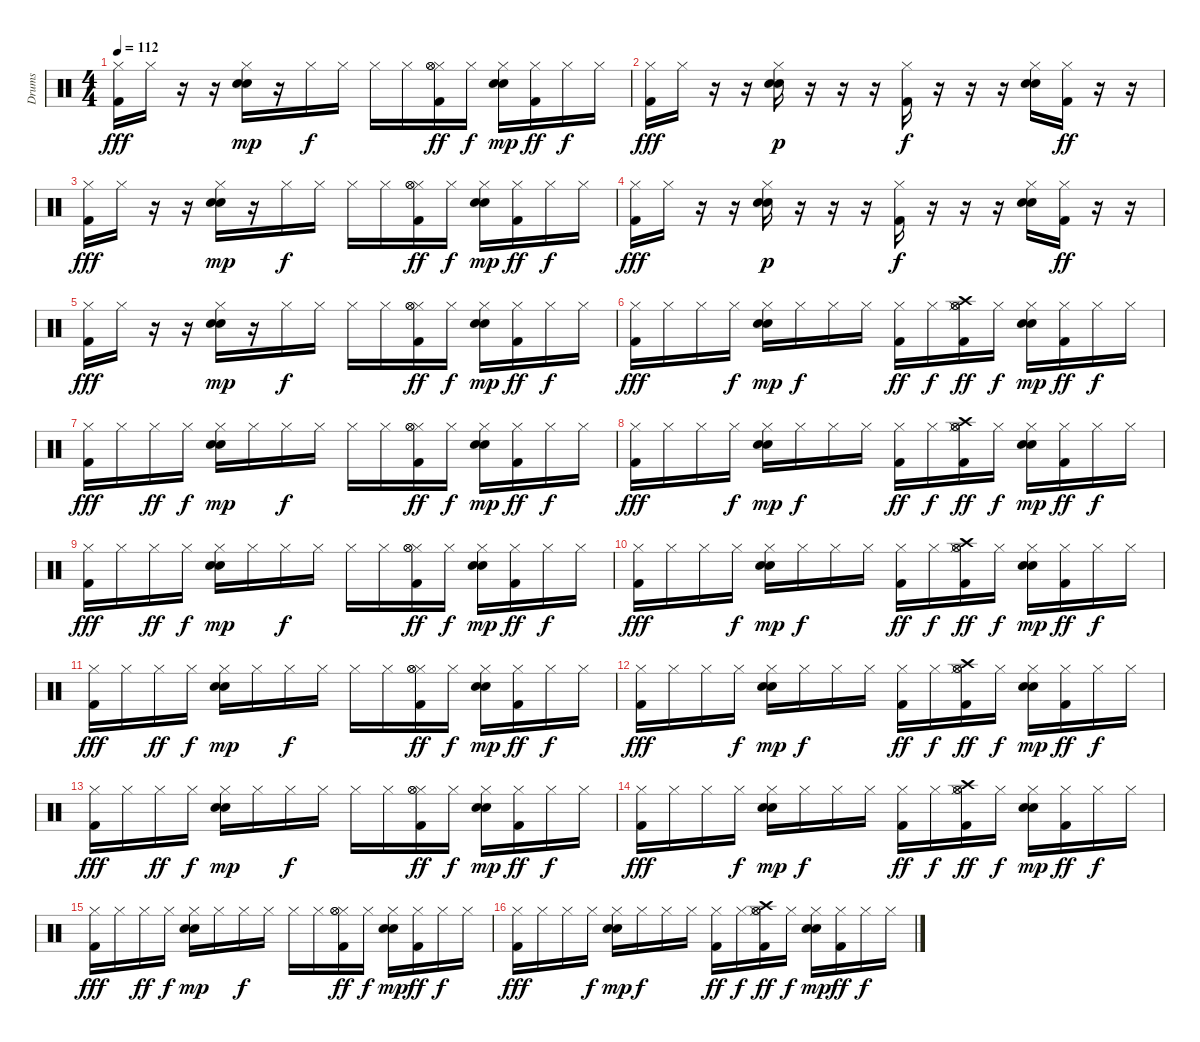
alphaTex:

\track ("Drums" "Drums") {instrument percussion}
\staff {score}
\articulation defaults
\ts (4 4)
\tempo 112
\clef neutral
\ks c
("Kick (hit) 2" "Hi-Hat (closed)").16{dy fff} "Hi-Hat (closed)".16 r.16 r.16 ("Snare (hit) 2" "Hi-Hat (closed)" "Hand Clap (hit)").16{dy mp} r.16 "Hi-Hat (closed)".16{dy f} "Hi-Hat (closed)".16 "Hi-Hat (closed)".16 "Hi-Hat (closed)".16 ("Kick (hit) 2" "Hi-Hat (closed)" "Hi-Hat (open)" "Hi-Hat (open)").16{dy ff} "Hi-Hat (closed)".16{dy f} ("Snare (hit) 2" "Hi-Hat (closed)" "Hand Clap (hit)").16{dy mp} ("Kick (hit) 2" "Hi-Hat (closed)").16{dy ff} "Hi-Hat (closed)".16{dy f} "Hi-Hat (closed)".16 |
("Kick (hit) 2" "Hi-Hat (closed)").16{dy fff} "Hi-Hat (closed)".16 r.16 r.16 ("Snare (hit) 2" "Hi-Hat (closed)" "Hand Clap (hit)").16{dy p} r.16 r.16 r.16 ("Kick (hit) 2" "Hi-Hat (closed)").16{dy f} r.16 r.16 r.16 ("Snare (hit) 2" "Hi-Hat (closed)" "Hand Clap (hit)").16 ("Kick (hit) 2" "Hi-Hat (closed)").16{dy ff} r.16 r.16 |
("Kick (hit) 2" "Hi-Hat (closed)").16{dy fff} "Hi-Hat (closed)".16 r.16 r.16 ("Snare (hit) 2" "Hi-Hat (closed)" "Hand Clap (hit)").16{dy mp} r.16 "Hi-Hat (closed)".16{dy f} "Hi-Hat (closed)".16 "Hi-Hat (closed)".16 "Hi-Hat (closed)".16 ("Kick (hit) 2" "Hi-Hat (closed)" "Hi-Hat (open)" "Hi-Hat (open)").16{dy ff} "Hi-Hat (closed)".16{dy f} ("Snare (hit) 2" "Hi-Hat (closed)" "Hand Clap (hit)").16{dy mp} ("Kick (hit) 2" "Hi-Hat (closed)").16{dy ff} "Hi-Hat (closed)".16{dy f} "Hi-Hat (closed)".16 |
("Kick (hit) 2" "Hi-Hat (closed)").16{dy fff} "Hi-Hat (closed)".16 r.16 r.16 ("Snare (hit) 2" "Hi-Hat (closed)" "Hand Clap (hit)").16{dy p} r.16 r.16 r.16 ("Kick (hit) 2" "Hi-Hat (closed)").16{dy f} r.16 r.16 r.16 ("Snare (hit) 2" "Hi-Hat (closed)" "Hand Clap (hit)").16 ("Kick (hit) 2" "Hi-Hat (closed)").16{dy ff} r.16 r.16 |
("Kick (hit) 2" "Hi-Hat (closed)").16{dy fff} "Hi-Hat (closed)".16 r.16 r.16 ("Snare (hit) 2" "Hi-Hat (closed)" "Hand Clap (hit)").16{dy mp} r.16 "Hi-Hat (closed)".16{dy f} "Hi-Hat (closed)".16 "Hi-Hat (closed)".16 "Hi-Hat (closed)".16 ("Kick (hit) 2" "Hi-Hat (closed)" "Hi-Hat (open)" "Hi-Hat (open)").16{dy ff} "Hi-Hat (closed)".16{dy f} ("Snare (hit) 2" "Hi-Hat (closed)" "Hand Clap (hit)").16{dy mp} ("Kick (hit) 2" "Hi-Hat (closed)").16{dy ff} "Hi-Hat (closed)".16{dy f} "Hi-Hat (closed)".16 |
("Kick (hit) 2" "Hi-Hat (closed)").16{dy fff} "Hi-Hat (closed)".16 "Hi-Hat (closed)".16 "Hi-Hat (closed)".16{dy f} ("Snare (hit) 2" "Hi-Hat (closed)" "Hand Clap (hit)").16{dy mp} "Hi-Hat (closed)".16{dy f} "Hi-Hat (closed)".16 "Hi-Hat (closed)".16 ("Kick (hit) 2" "Hi-Hat (closed)").16{dy ff} "Hi-Hat (closed)".16{dy f} ("Kick (hit) 2" "Crash high (hit)" "Hi-Hat (closed)" "Hi-Hat (open)" "Hi-Hat (open)").16{dy ff} "Hi-Hat (closed)".16{dy f} ("Snare (hit) 2" "Hi-Hat (closed)" "Hand Clap (hit)").16{dy mp} ("Kick (hit) 2" "Hi-Hat (closed)").16{dy ff} "Hi-Hat (closed)".16{dy f} "Hi-Hat (closed)".16 |
("Kick (hit) 2" "Hi-Hat (closed)").16{dy fff} "Hi-Hat (closed)".16 "Hi-Hat (closed)".16{dy ff} "Hi-Hat (closed)".16{dy f} ("Snare (hit) 2" "Hi-Hat (closed)" "Hand Clap (hit)").16{dy mp} "Hi-Hat (closed)".16 "Hi-Hat (closed)".16{dy f} "Hi-Hat (closed)".16 "Hi-Hat (closed)".16 "Hi-Hat (closed)".16 ("Kick (hit) 2" "Hi-Hat (closed)" "Hi-Hat (open)" "Hi-Hat (open)").16{dy ff} "Hi-Hat (closed)".16{dy f} ("Snare (hit) 2" "Hi-Hat (closed)" "Hand Clap (hit)").16{dy mp} ("Kick (hit) 2" "Hi-Hat (closed)").16{dy ff} "Hi-Hat (closed)".16{dy f} "Hi-Hat (closed)".16 |
("Kick (hit) 2" "Hi-Hat (closed)").16{dy fff} "Hi-Hat (closed)".16 "Hi-Hat (closed)".16 "Hi-Hat (closed)".16{dy f} ("Snare (hit) 2" "Hi-Hat (closed)" "Hand Clap (hit)").16{dy mp} "Hi-Hat (closed)".16{dy f} "Hi-Hat (closed)".16 "Hi-Hat (closed)".16 ("Kick (hit) 2" "Hi-Hat (closed)").16{dy ff} "Hi-Hat (closed)".16{dy f} ("Kick (hit) 2" "Crash high (hit)" "Hi-Hat (closed)" "Hi-Hat (open)" "Hi-Hat (open)").16{dy ff} "Hi-Hat (closed)".16{dy f} ("Snare (hit) 2" "Hi-Hat (closed)" "Hand Clap (hit)").16{dy mp} ("Kick (hit) 2" "Hi-Hat (closed)").16{dy ff} "Hi-Hat (closed)".16{dy f} "Hi-Hat (closed)".16 |
("Kick (hit) 2" "Hi-Hat (closed)").16{dy fff} "Hi-Hat (closed)".16 "Hi-Hat (closed)".16{dy ff} "Hi-Hat (closed)".16{dy f} ("Snare (hit) 2" "Hi-Hat (closed)" "Hand Clap (hit)").16{dy mp} "Hi-Hat (closed)".16 "Hi-Hat (closed)".16{dy f} "Hi-Hat (closed)".16 "Hi-Hat (closed)".16 "Hi-Hat (closed)".16 ("Kick (hit) 2" "Hi-Hat (closed)" "Hi-Hat (open)" "Hi-Hat (open)").16{dy ff} "Hi-Hat (closed)".16{dy f} ("Snare (hit) 2" "Hi-Hat (closed)" "Hand Clap (hit)").16{dy mp} ("Kick (hit) 2" "Hi-Hat (closed)").16{dy ff} "Hi-Hat (closed)".16{dy f} "Hi-Hat (closed)".16 |
("Kick (hit) 2" "Hi-Hat (closed)").16{dy fff} "Hi-Hat (closed)".16 "Hi-Hat (closed)".16 "Hi-Hat (closed)".16{dy f} ("Snare (hit) 2" "Hi-Hat (closed)" "Hand Clap (hit)").16{dy mp} "Hi-Hat (closed)".16{dy f} "Hi-Hat (closed)".16 "Hi-Hat (closed)".16 ("Kick (hit) 2" "Hi-Hat (closed)").16{dy ff} "Hi-Hat (closed)".16{dy f} ("Kick (hit) 2" "Crash high (hit)" "Hi-Hat (closed)" "Hi-Hat (open)" "Hi-Hat (open)").16{dy ff} "Hi-Hat (closed)".16{dy f} ("Snare (hit) 2" "Hi-Hat (closed)" "Hand Clap (hit)").16{dy mp} ("Kick (hit) 2" "Hi-Hat (closed)").16{dy ff} "Hi-Hat (closed)".16{dy f} "Hi-Hat (closed)".16 |
("Kick (hit) 2" "Hi-Hat (closed)").16{dy fff} "Hi-Hat (closed)".16 "Hi-Hat (closed)".16{dy ff} "Hi-Hat (closed)".16{dy f} ("Snare (hit) 2" "Hi-Hat (closed)" "Hand Clap (hit)").16{dy mp} "Hi-Hat (closed)".16 "Hi-Hat (closed)".16{dy f} "Hi-Hat (closed)".16 "Hi-Hat (closed)".16 "Hi-Hat (closed)".16 ("Kick (hit) 2" "Hi-Hat (closed)" "Hi-Hat (open)" "Hi-Hat (open)").16{dy ff} "Hi-Hat (closed)".16{dy f} ("Snare (hit) 2" "Hi-Hat (closed)" "Hand Clap (hit)").16{dy mp} ("Kick (hit) 2" "Hi-Hat (closed)").16{dy ff} "Hi-Hat (closed)".16{dy f} "Hi-Hat (closed)".16 |
("Kick (hit) 2" "Hi-Hat (closed)").16{dy fff} "Hi-Hat (closed)".16 "Hi-Hat (closed)".16 "Hi-Hat (closed)".16{dy f} ("Snare (hit) 2" "Hi-Hat (closed)" "Hand Clap (hit)").16{dy mp} "Hi-Hat (closed)".16{dy f} "Hi-Hat (closed)".16 "Hi-Hat (closed)".16 ("Kick (hit) 2" "Hi-Hat (closed)").16{dy ff} "Hi-Hat (closed)".16{dy f} ("Kick (hit) 2" "Crash high (hit)" "Hi-Hat (closed)" "Hi-Hat (open)" "Hi-Hat (open)").16{dy ff} "Hi-Hat (closed)".16{dy f} ("Snare (hit) 2" "Hi-Hat (closed)" "Hand Clap (hit)").16{dy mp} ("Kick (hit) 2" "Hi-Hat (closed)").16{dy ff} "Hi-Hat (closed)".16{dy f} "Hi-Hat (closed)".16 |
("Kick (hit) 2" "Hi-Hat (closed)").16{dy fff} "Hi-Hat (closed)".16 "Hi-Hat (closed)".16{dy ff} "Hi-Hat (closed)".16{dy f} ("Snare (hit) 2" "Hi-Hat (closed)" "Hand Clap (hit)").16{dy mp} "Hi-Hat (closed)".16 "Hi-Hat (closed)".16{dy f} "Hi-Hat (closed)".16 "Hi-Hat (closed)".16 "Hi-Hat (closed)".16 ("Kick (hit) 2" "Hi-Hat (closed)" "Hi-Hat (open)" "Hi-Hat (open)").16{dy ff} "Hi-Hat (closed)".16{dy f} ("Snare (hit) 2" "Hi-Hat (closed)" "Hand Clap (hit)").16{dy mp} ("Kick (hit) 2" "Hi-Hat (closed)").16{dy ff} "Hi-Hat (closed)".16{dy f} "Hi-Hat (closed)".16 |
("Kick (hit) 2" "Hi-Hat (closed)").16{dy fff} "Hi-Hat (closed)".16 "Hi-Hat (closed)".16 "Hi-Hat (closed)".16{dy f} ("Snare (hit) 2" "Hi-Hat (closed)" "Hand Clap (hit)").16{dy mp} "Hi-Hat (closed)".16{dy f} "Hi-Hat (closed)".16 "Hi-Hat (closed)".16 ("Kick (hit) 2" "Hi-Hat (closed)").16{dy ff} "Hi-Hat (closed)".16{dy f} ("Kick (hit) 2" "Crash high (hit)" "Hi-Hat (closed)" "Hi-Hat (open)" "Hi-Hat (open)").16{dy ff} "Hi-Hat (closed)".16{dy f} ("Snare (hit) 2" "Hi-Hat (closed)" "Hand Clap (hit)").16{dy mp} ("Kick (hit) 2" "Hi-Hat (closed)").16{dy ff} "Hi-Hat (closed)".16{dy f} "Hi-Hat (closed)".16 |
("Kick (hit) 2" "Hi-Hat (closed)").16{dy fff} "Hi-Hat (closed)".16 "Hi-Hat (closed)".16{dy ff} "Hi-Hat (closed)".16{dy f} ("Snare (hit) 2" "Hi-Hat (closed)" "Hand Clap (hit)").16{dy mp} "Hi-Hat (closed)".16 "Hi-Hat (closed)".16{dy f} "Hi-Hat (closed)".16 "Hi-Hat (closed)".16 "Hi-Hat (closed)".16 ("Kick (hit) 2" "Hi-Hat (closed)" "Hi-Hat (open)" "Hi-Hat (open)").16{dy ff} "Hi-Hat (closed)".16{dy f} ("Snare (hit) 2" "Hi-Hat (closed)" "Hand Clap (hit)").16{dy mp} ("Kick (hit) 2" "Hi-Hat (closed)").16{dy ff} "Hi-Hat (closed)".16{dy f} "Hi-Hat (closed)".16 |
("Kick (hit) 2" "Hi-Hat (closed)").16{dy fff} "Hi-Hat (closed)".16 "Hi-Hat (closed)".16 "Hi-Hat (closed)".16{dy f} ("Snare (hit) 2" "Hi-Hat (closed)" "Hand Clap (hit)").16{dy mp} "Hi-Hat (closed)".16{dy f} "Hi-Hat (closed)".16 "Hi-Hat (closed)".16 ("Kick (hit) 2" "Hi-Hat (closed)").16{dy ff} "Hi-Hat (closed)".16{dy f} ("Kick (hit) 2" "Crash high (hit)" "Hi-Hat (closed)" "Hi-Hat (open)" "Hi-Hat (open)").16{dy ff} "Hi-Hat (closed)".16{dy f} ("Snare (hit) 2" "Hi-Hat (closed)" "Hand Clap (hit)").16{dy mp} ("Kick (hit) 2" "Hi-Hat (closed)").16{dy ff} "Hi-Hat (closed)".16{dy f} "Hi-Hat (closed)".16
